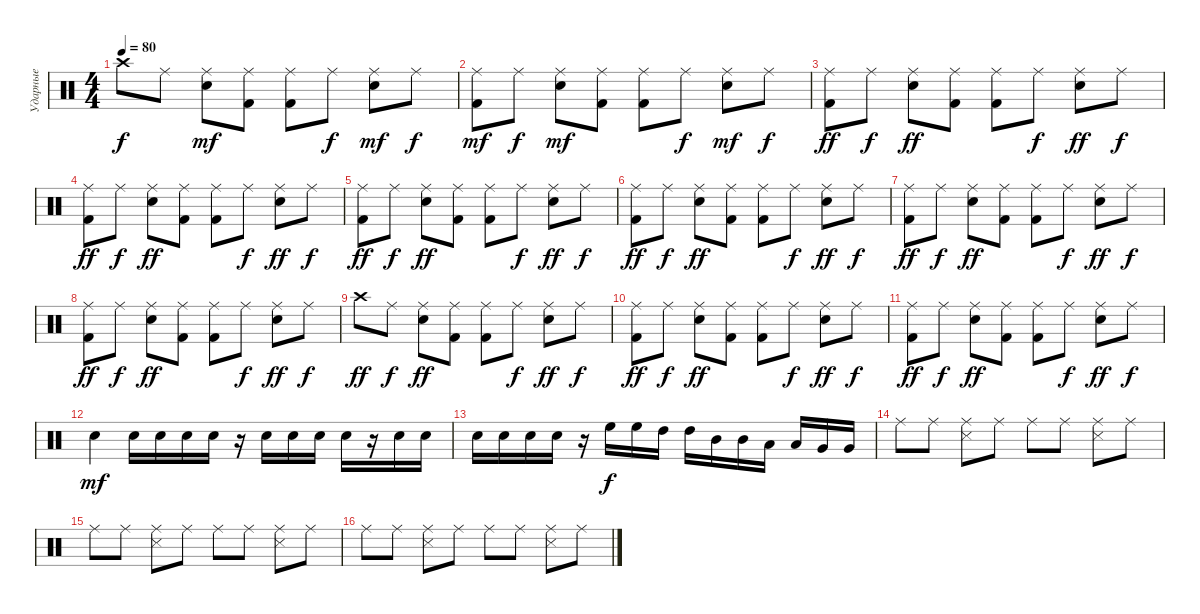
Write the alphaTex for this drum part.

\track ("Ударные" "Ударные") {instrument percussion}
\staff {score}
\articulation defaults
\ts (4 4)
\tempo 80
\clef neutral
\ks c "Crash high (hit)".8{dy f} "Ride (middle)".8
("Snare (hit) 2" "Ride (middle)").8{dy mf} ("Kick (hit) 2" "Ride (middle)").8 ("Kick (hit) 2" "Ride (middle)").8 "Ride (middle)".8{dy f} ("Snare (hit) 2" "Ride (middle)").8{dy mf} "Ride (middle)".8{dy f} |
("Kick (hit) 2" "Ride (middle)").8{dy mf} "Ride (middle)".8{dy f} ("Snare (hit) 2" "Ride (middle)").8{dy mf} ("Kick (hit) 2" "Ride (middle)").8 ("Kick (hit) 2" "Ride (middle)").8 "Ride (middle)".8{dy f} ("Snare (hit) 2" "Ride (middle)").8{dy mf} "Ride (middle)".8{dy f} |
("Kick (hit) 2" "Ride (middle)").8{dy ff} "Ride (middle)".8{dy f} ("Snare (hit) 2" "Ride (middle)").8{dy ff} ("Kick (hit) 2" "Ride (middle)").8 ("Kick (hit) 2" "Ride (middle)").8 "Ride (middle)".8{dy f} ("Snare (hit) 2" "Ride (middle)").8{dy ff} "Ride (middle)".8{dy f} |
("Kick (hit) 2" "Ride (middle)").8{dy ff} "Ride (middle)".8{dy f} ("Snare (hit) 2" "Ride (middle)").8{dy ff} ("Kick (hit) 2" "Ride (middle)").8 ("Kick (hit) 2" "Ride (middle)").8 "Ride (middle)".8{dy f} ("Snare (hit) 2" "Ride (middle)").8{dy ff} "Ride (middle)".8{dy f} |
("Kick (hit) 2" "Ride (middle)").8{dy ff} "Ride (middle)".8{dy f} ("Snare (hit) 2" "Ride (middle)").8{dy ff} ("Kick (hit) 2" "Ride (middle)").8 ("Kick (hit) 2" "Ride (middle)").8 "Ride (middle)".8{dy f} ("Snare (hit) 2" "Ride (middle)").8{dy ff} "Ride (middle)".8{dy f} |
("Kick (hit) 2" "Ride (middle)").8{dy ff} "Ride (middle)".8{dy f} ("Snare (hit) 2" "Ride (middle)").8{dy ff} ("Kick (hit) 2" "Ride (middle)").8 ("Kick (hit) 2" "Ride (middle)").8 "Ride (middle)".8{dy f} ("Snare (hit) 2" "Ride (middle)").8{dy ff} "Ride (middle)".8{dy f} |
("Kick (hit) 2" "Ride (middle)").8{dy ff} "Ride (middle)".8{dy f} ("Snare (hit) 2" "Ride (middle)").8{dy ff} ("Kick (hit) 2" "Ride (middle)").8 ("Kick (hit) 2" "Ride (middle)").8 "Ride (middle)".8{dy f} ("Snare (hit) 2" "Ride (middle)").8{dy ff} "Ride (middle)".8{dy f} |
("Kick (hit) 2" "Ride (middle)").8{dy ff} "Ride (middle)".8{dy f} ("Snare (hit) 2" "Ride (middle)").8{dy ff} ("Kick (hit) 2" "Ride (middle)").8 ("Kick (hit) 2" "Ride (middle)").8 "Ride (middle)".8{dy f} ("Snare (hit) 2" "Ride (middle)").8{dy ff} "Ride (middle)".8{dy f} |
"Crash high (hit)".8{dy ff} "Ride (middle)".8{dy f} ("Snare (hit) 2" "Ride (middle)").8{dy ff} ("Kick (hit) 2" "Ride (middle)").8 ("Kick (hit) 2" "Ride (middle)").8 "Ride (middle)".8{dy f} ("Snare (hit) 2" "Ride (middle)").8{dy ff} "Ride (middle)".8{dy f} |
("Kick (hit) 2" "Ride (middle)").8{dy ff} "Ride (middle)".8{dy f} ("Snare (hit) 2" "Ride (middle)").8{dy ff} ("Kick (hit) 2" "Ride (middle)").8 ("Kick (hit) 2" "Ride (middle)").8 "Ride (middle)".8{dy f} ("Snare (hit) 2" "Ride (middle)").8{dy ff} "Ride (middle)".8{dy f} |
("Kick (hit) 2" "Ride (middle)").8{dy ff} "Ride (middle)".8{dy f} ("Snare (hit) 2" "Ride (middle)").8{dy ff} ("Kick (hit) 2" "Ride (middle)").8 ("Kick (hit) 2" "Ride (middle)").8 "Ride (middle)".8{dy f} ("Snare (hit) 2" "Ride (middle)").8{dy ff} "Ride (middle)".8{dy f} |
"Snare (hit) 2".4{dy mf} "Snare (hit) 2".16 "Snare (hit) 2".16 "Snare (hit) 2".16 "Snare (hit) 2".16 r.16 "Snare (hit) 2".16 "Snare (hit) 2".16 "Snare (hit) 2".16 "Snare (hit) 2".16 r.16 "Snare (hit) 2".16 "Snare (hit) 2".16 |
"Snare (hit) 2".16 "Snare (hit) 2".16 "Snare (hit) 2".16 "Snare (hit) 2".16 r.16 "High Floor Tom (hit)".16{dy f} "High Floor Tom (hit)".16 "High Tom (hit)".16 "High Tom (hit)".16 "Mid Tom (hit)".16 "Mid Tom (hit)".16 "Low Tom (hit)".16 "Low Tom (hit)".16 "Very Low Tom (hit)".16 "Very Low Tom (hit)".16 |
"Ride (middle)".8 "Ride (middle)".8 ("Ride (middle)" "Snare (side stick) 3").8 "Ride (middle)".8 "Ride (middle)".8 "Ride (middle)".8 ("Ride (middle)" "Snare (side stick) 3").8 "Ride (middle)".8 |
"Ride (middle)".8 "Ride (middle)".8 ("Ride (middle)" "Snare (side stick) 3").8 "Ride (middle)".8 "Ride (middle)".8 "Ride (middle)".8 ("Ride (middle)" "Snare (side stick) 3").8 "Ride (middle)".8 |
"Ride (middle)".8 "Ride (middle)".8 ("Ride (middle)" "Snare (side stick) 3").8 "Ride (middle)".8 "Ride (middle)".8 "Ride (middle)".8 ("Ride (middle)" "Snare (side stick) 3").8 "Ride (middle)".8
